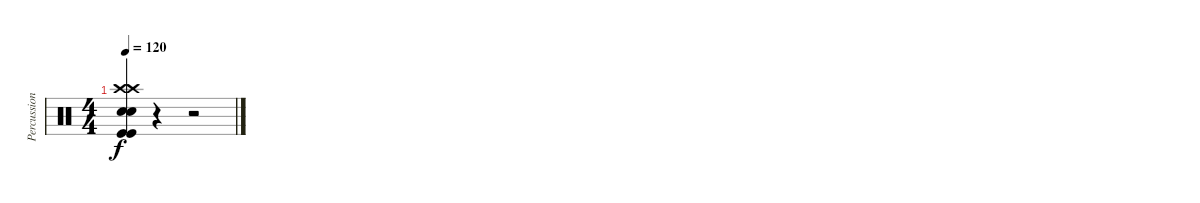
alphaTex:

\track ("Percussion" "Percussion") {instrument percussion}
\staff {score}
\articulation defaults
\ts (4 4)
\tempo 120
\clef neutral
\ks c
("Electric Snare (hit)" "Crash high (hit)" "Crash high (hit)" "Electric Snare (hit)" "Kick (hit)" "Kick (hit)").4{dy f} r.4 r.2
